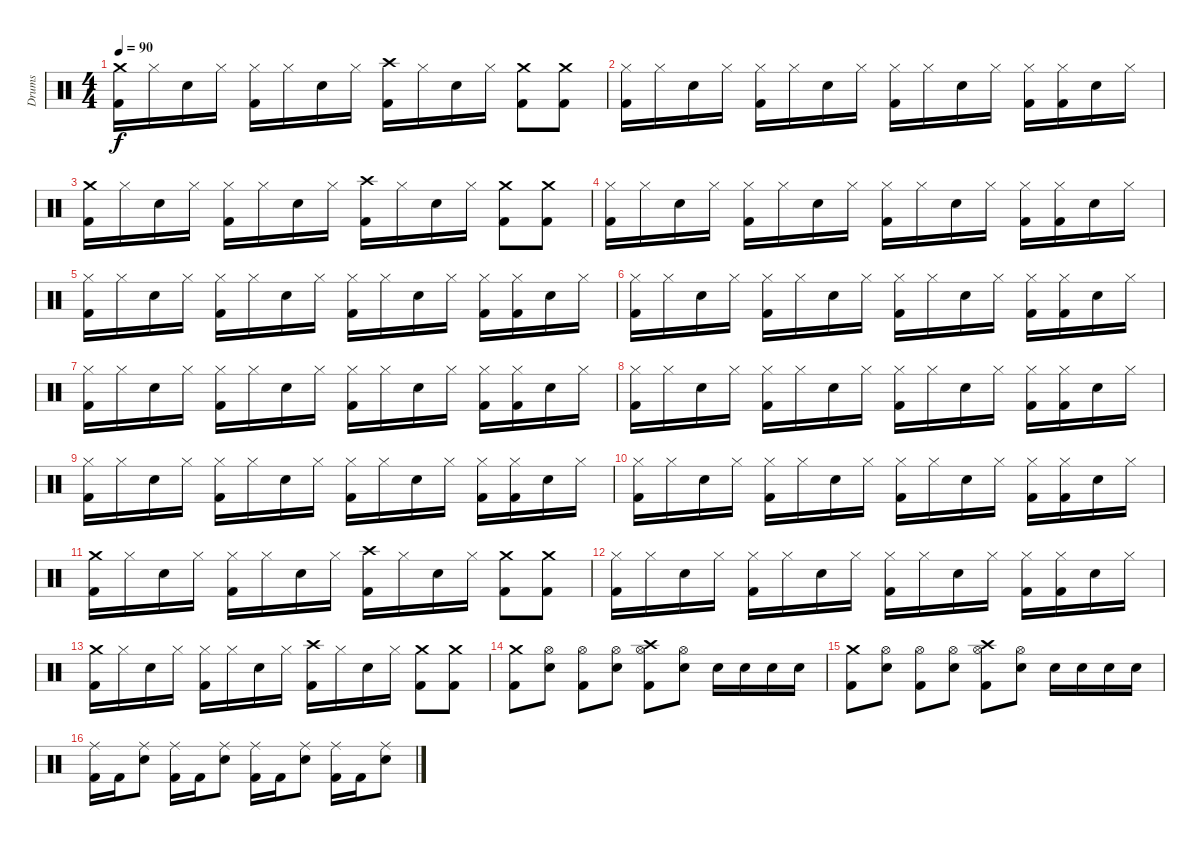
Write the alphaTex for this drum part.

\track ("Drums" "Drums") {instrument percussion}
\staff {score}
\articulation defaults
\ts (4 4)
\tempo 90
\clef neutral
\ks c
("Crash medium (hit)" "Kick (hit) 2").16{dy f} "Hi-Hat (closed)".16 "Electric Snare (hit)".16 "Hi-Hat (closed)".16 ("Hi-Hat (closed)" "Kick (hit) 2").16 "Hi-Hat (closed)".16 "Electric Snare (hit)".16 "Hi-Hat (closed)".16 ("Crash high (hit)" "Kick (hit) 2").16 "Hi-Hat (closed)".16 "Electric Snare (hit)".16 "Hi-Hat (closed)".16 ("Crash medium (hit)" "Kick (hit) 2").8 ("Crash medium (hit)" "Kick (hit) 2").8 |
("Hi-Hat (closed)" "Kick (hit) 2").16 "Hi-Hat (closed)".16 "Electric Snare (hit)".16 "Hi-Hat (closed)".16 ("Hi-Hat (closed)" "Kick (hit) 2").16 "Hi-Hat (closed)".16 "Electric Snare (hit)".16 "Hi-Hat (closed)".16 ("Hi-Hat (closed)" "Kick (hit) 2").16 "Hi-Hat (closed)".16 "Electric Snare (hit)".16 "Hi-Hat (closed)".16 ("Hi-Hat (closed)" "Kick (hit) 2").16 ("Hi-Hat (closed)" "Kick (hit) 2").16 "Electric Snare (hit)".16 "Hi-Hat (closed)".16 |
("Crash medium (hit)" "Kick (hit) 2").16 "Hi-Hat (closed)".16 "Electric Snare (hit)".16 "Hi-Hat (closed)".16 ("Hi-Hat (closed)" "Kick (hit) 2").16 "Hi-Hat (closed)".16 "Electric Snare (hit)".16 "Hi-Hat (closed)".16 ("Crash high (hit)" "Kick (hit) 2").16 "Hi-Hat (closed)".16 "Electric Snare (hit)".16 "Hi-Hat (closed)".16 ("Crash medium (hit)" "Kick (hit) 2").8 ("Crash medium (hit)" "Kick (hit) 2").8 |
("Hi-Hat (closed)" "Kick (hit) 2").16 "Hi-Hat (closed)".16 "Electric Snare (hit)".16 "Hi-Hat (closed)".16 ("Hi-Hat (closed)" "Kick (hit) 2").16 "Hi-Hat (closed)".16 "Electric Snare (hit)".16 "Hi-Hat (closed)".16 ("Hi-Hat (closed)" "Kick (hit) 2").16 "Hi-Hat (closed)".16 "Electric Snare (hit)".16 "Hi-Hat (closed)".16 ("Hi-Hat (closed)" "Kick (hit) 2").16 ("Hi-Hat (closed)" "Kick (hit) 2").16 "Electric Snare (hit)".16 "Hi-Hat (closed)".16 |
("Hi-Hat (closed)" "Kick (hit) 2").16 "Hi-Hat (closed)".16 "Electric Snare (hit)".16 "Hi-Hat (closed)".16 ("Hi-Hat (closed)" "Kick (hit) 2").16 "Hi-Hat (closed)".16 "Electric Snare (hit)".16 "Hi-Hat (closed)".16 ("Hi-Hat (closed)" "Kick (hit) 2").16 "Hi-Hat (closed)".16 "Electric Snare (hit)".16 "Hi-Hat (closed)".16 ("Hi-Hat (closed)" "Kick (hit) 2").16 ("Hi-Hat (closed)" "Kick (hit) 2").16 "Electric Snare (hit)".16 "Hi-Hat (closed)".16 |
("Hi-Hat (closed)" "Kick (hit) 2").16 "Hi-Hat (closed)".16 "Electric Snare (hit)".16 "Hi-Hat (closed)".16 ("Hi-Hat (closed)" "Kick (hit) 2").16 "Hi-Hat (closed)".16 "Electric Snare (hit)".16 "Hi-Hat (closed)".16 ("Hi-Hat (closed)" "Kick (hit) 2").16 "Hi-Hat (closed)".16 "Electric Snare (hit)".16 "Hi-Hat (closed)".16 ("Hi-Hat (closed)" "Kick (hit) 2").16 ("Hi-Hat (closed)" "Kick (hit) 2").16 "Electric Snare (hit)".16 "Hi-Hat (closed)".16 |
("Hi-Hat (closed)" "Kick (hit) 2").16 "Hi-Hat (closed)".16 "Electric Snare (hit)".16 "Hi-Hat (closed)".16 ("Hi-Hat (closed)" "Kick (hit) 2").16 "Hi-Hat (closed)".16 "Electric Snare (hit)".16 "Hi-Hat (closed)".16 ("Hi-Hat (closed)" "Kick (hit) 2").16 "Hi-Hat (closed)".16 "Electric Snare (hit)".16 "Hi-Hat (closed)".16 ("Hi-Hat (closed)" "Kick (hit) 2").16 ("Hi-Hat (closed)" "Kick (hit) 2").16 "Electric Snare (hit)".16 "Hi-Hat (closed)".16 |
("Hi-Hat (closed)" "Kick (hit) 2").16 "Hi-Hat (closed)".16 "Electric Snare (hit)".16 "Hi-Hat (closed)".16 ("Hi-Hat (closed)" "Kick (hit) 2").16 "Hi-Hat (closed)".16 "Electric Snare (hit)".16 "Hi-Hat (closed)".16 ("Hi-Hat (closed)" "Kick (hit) 2").16 "Hi-Hat (closed)".16 "Electric Snare (hit)".16 "Hi-Hat (closed)".16 ("Hi-Hat (closed)" "Kick (hit) 2").16 ("Hi-Hat (closed)" "Kick (hit) 2").16 "Electric Snare (hit)".16 "Hi-Hat (closed)".16 |
("Hi-Hat (closed)" "Kick (hit) 2").16 "Hi-Hat (closed)".16 "Electric Snare (hit)".16 "Hi-Hat (closed)".16 ("Hi-Hat (closed)" "Kick (hit) 2").16 "Hi-Hat (closed)".16 "Electric Snare (hit)".16 "Hi-Hat (closed)".16 ("Hi-Hat (closed)" "Kick (hit) 2").16 "Hi-Hat (closed)".16 "Electric Snare (hit)".16 "Hi-Hat (closed)".16 ("Hi-Hat (closed)" "Kick (hit) 2").16 ("Hi-Hat (closed)" "Kick (hit) 2").16 "Electric Snare (hit)".16 "Hi-Hat (closed)".16 |
("Hi-Hat (closed)" "Kick (hit) 2").16 "Hi-Hat (closed)".16 "Electric Snare (hit)".16 "Hi-Hat (closed)".16 ("Hi-Hat (closed)" "Kick (hit) 2").16 "Hi-Hat (closed)".16 "Electric Snare (hit)".16 "Hi-Hat (closed)".16 ("Hi-Hat (closed)" "Kick (hit) 2").16 "Hi-Hat (closed)".16 "Electric Snare (hit)".16 "Hi-Hat (closed)".16 ("Hi-Hat (closed)" "Kick (hit) 2").16 ("Hi-Hat (closed)" "Kick (hit) 2").16 "Electric Snare (hit)".16 "Hi-Hat (closed)".16 |
("Crash medium (hit)" "Kick (hit) 2").16 "Hi-Hat (closed)".16 "Electric Snare (hit)".16 "Hi-Hat (closed)".16 ("Hi-Hat (closed)" "Kick (hit) 2").16 "Hi-Hat (closed)".16 "Electric Snare (hit)".16 "Hi-Hat (closed)".16 ("Crash high (hit)" "Kick (hit) 2").16 "Hi-Hat (closed)".16 "Electric Snare (hit)".16 "Hi-Hat (closed)".16 ("Crash medium (hit)" "Kick (hit) 2").8 ("Crash medium (hit)" "Kick (hit) 2").8 |
("Hi-Hat (closed)" "Kick (hit) 2").16 "Hi-Hat (closed)".16 "Electric Snare (hit)".16 "Hi-Hat (closed)".16 ("Hi-Hat (closed)" "Kick (hit) 2").16 "Hi-Hat (closed)".16 "Electric Snare (hit)".16 "Hi-Hat (closed)".16 ("Hi-Hat (closed)" "Kick (hit) 2").16 "Hi-Hat (closed)".16 "Electric Snare (hit)".16 "Hi-Hat (closed)".16 ("Hi-Hat (closed)" "Kick (hit) 2").16 ("Hi-Hat (closed)" "Kick (hit) 2").16 "Electric Snare (hit)".16 "Hi-Hat (closed)".16 |
("Crash medium (hit)" "Kick (hit) 2").16 "Hi-Hat (closed)".16 "Electric Snare (hit)".16 "Hi-Hat (closed)".16 ("Hi-Hat (closed)" "Kick (hit) 2").16 "Hi-Hat (closed)".16 "Electric Snare (hit)".16 "Hi-Hat (closed)".16 ("Crash high (hit)" "Kick (hit) 2").16 "Hi-Hat (closed)".16 "Electric Snare (hit)".16 "Hi-Hat (closed)".16 ("Crash medium (hit)" "Kick (hit) 2").8 ("Crash medium (hit)" "Kick (hit) 2").8 |
("Crash medium (hit)" "Kick (hit) 2").8 ("Hi-Hat (open)" "Electric Snare (hit)").8 ("Hi-Hat (open)" "Kick (hit) 2").8 ("Hi-Hat (open)" "Electric Snare (hit)").8 ("Crash high (hit)" "Hi-Hat (open)" "Kick (hit) 2").8 ("Hi-Hat (open)" "Electric Snare (hit)").8 "Electric Snare (hit)".16 "Electric Snare (hit)".16 "Electric Snare (hit)".16 "Electric Snare (hit)".16 |
("Crash medium (hit)" "Kick (hit) 2").8 ("Hi-Hat (open)" "Electric Snare (hit)").8 ("Hi-Hat (open)" "Kick (hit) 2").8 ("Hi-Hat (open)" "Electric Snare (hit)").8 ("Crash high (hit)" "Hi-Hat (open)" "Kick (hit) 2").8 ("Hi-Hat (open)" "Electric Snare (hit)").8 "Electric Snare (hit)".16 "Electric Snare (hit)".16 "Electric Snare (hit)".16 "Electric Snare (hit)".16 |
("Ride (middle)" "Kick (hit) 2").16 "Kick (hit) 2".16 ("Ride (middle)" "Electric Snare (hit)").8 ("Ride (middle)" "Kick (hit) 2").16 "Kick (hit) 2".16 ("Ride (middle)" "Electric Snare (hit)").8 ("Ride (middle)" "Kick (hit) 2").16 "Kick (hit) 2".16 ("Ride (middle)" "Electric Snare (hit)").8 ("Ride (middle)" "Kick (hit) 2").16 "Kick (hit) 2".16 ("Ride (middle)" "Electric Snare (hit)").8
